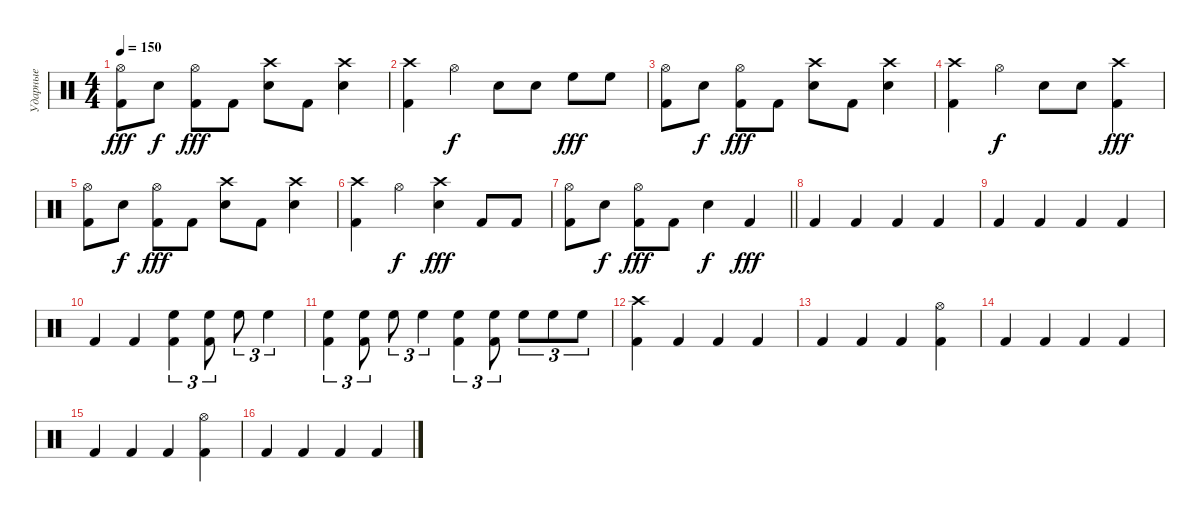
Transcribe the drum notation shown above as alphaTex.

\track ("Ударные" "Ударные") {instrument percussion}
\staff {score}
\articulation defaults
\ts (4 4)
\tempo 150
\clef neutral
\ks c
("Kick (hit) 2" "Hi-Hat (open)").8{dy fff} "Snare (hit) 2".8{dy f} ("Kick (hit) 2" "Hi-Hat (open)").8{dy fff} "Kick (hit) 2".8 ("Snare (hit) 2" "Crash high (hit)").8 "Kick (hit) 2".8 ("Snare (hit) 2" "Crash high (hit)").4 |
("Kick (hit) 2" "Crash high (hit)").4 "Hi-Hat (open)".4{dy f} "Snare (hit) 2".8 "Snare (hit) 2".8 "High Floor Tom (hit)".8{dy fff} "High Floor Tom (hit)".8 |
("Kick (hit) 2" "Hi-Hat (open)").8 "Snare (hit) 2".8{dy f} ("Kick (hit) 2" "Hi-Hat (open)").8{dy fff} "Kick (hit) 2".8 ("Snare (hit) 2" "Crash high (hit)").8 "Kick (hit) 2".8 ("Snare (hit) 2" "Crash high (hit)").4 |
("Kick (hit) 2" "Crash high (hit)").4 "Hi-Hat (open)".4{dy f} "Snare (hit) 2".8 "Snare (hit) 2".8 ("Kick (hit) 2" "Crash high (hit)").4{dy fff} |
("Kick (hit) 2" "Hi-Hat (open)").8 "Snare (hit) 2".8{dy f} ("Kick (hit) 2" "Hi-Hat (open)").8{dy fff} "Kick (hit) 2".8 ("Snare (hit) 2" "Crash high (hit)").8 "Kick (hit) 2".8 ("Snare (hit) 2" "Crash high (hit)").4 |
("Kick (hit) 2" "Crash high (hit)").4 "Hi-Hat (open)".4{dy f} ("Snare (hit) 2" "Crash high (hit)").4{dy fff} "Kick (hit) 2".8 "Kick (hit) 2".8 |
\barLineRight lightlight
("Kick (hit) 2" "Hi-Hat (open)").8 "Snare (hit) 2".8{dy f} ("Kick (hit) 2" "Hi-Hat (open)").8{dy fff} "Kick (hit) 2".8 "Snare (hit) 2".4{dy f} "Kick (hit) 2".4{dy fff} |
"Kick (hit) 2".4 "Kick (hit) 2".4 "Kick (hit) 2".4 "Kick (hit) 2".4 |
"Kick (hit) 2".4 "Kick (hit) 2".4 "Kick (hit) 2".4 "Kick (hit) 2".4 |
"Kick (hit) 2".4 "Kick (hit) 2".4 ("Kick (hit) 2" "High Floor Tom (hit)").4{tu (3 2)} ("Kick (hit) 2" "High Floor Tom (hit)").8{tu (3 2)} "High Floor Tom (hit)".8{tu (3 2)} "High Floor Tom (hit)".4{tu (3 2)} |
("Kick (hit) 2" "High Floor Tom (hit)").4{tu (3 2)} ("Kick (hit) 2" "High Floor Tom (hit)").8{tu (3 2)} "High Floor Tom (hit)".8{tu (3 2)} "High Floor Tom (hit)".4{tu (3 2)} ("Kick (hit) 2" "High Floor Tom (hit)").4{tu (3 2)} ("Kick (hit) 2" "High Floor Tom (hit)").8{tu (3 2)} "High Floor Tom (hit)".8{tu (3 2)} "High Floor Tom (hit)".8{tu (3 2)} "High Floor Tom (hit)".8{tu (3 2)} |
("Kick (hit) 2" "Crash high (hit)").4 "Kick (hit) 2".4 "Kick (hit) 2".4 "Kick (hit) 2".4 |
"Kick (hit) 2".4 "Kick (hit) 2".4 "Kick (hit) 2".4 ("Kick (hit) 2" "Hi-Hat (open)").4 |
"Kick (hit) 2".4 "Kick (hit) 2".4 "Kick (hit) 2".4 "Kick (hit) 2".4 |
"Kick (hit) 2".4 "Kick (hit) 2".4 "Kick (hit) 2".4 ("Kick (hit) 2" "Hi-Hat (open)").4 |
"Kick (hit) 2".4 "Kick (hit) 2".4 "Kick (hit) 2".4 "Kick (hit) 2".4
